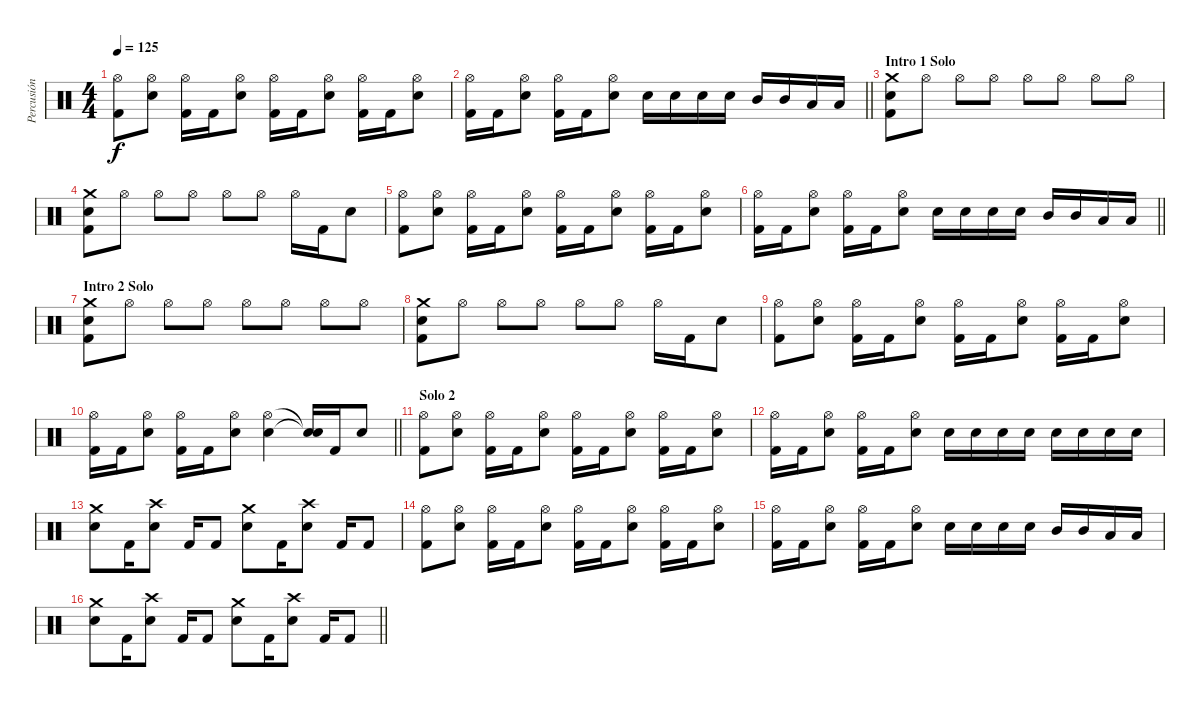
\track ("Percusión" "Percusión") {instrument percussion}
\staff {score}
\articulation defaults
\ts (4 4)
\tempo 125
\clef neutral
\ks c
("Hi-Hat (open)" "Kick (hit) 2").8{dy f} ("Hi-Hat (open)" "Snare (hit) 2").8 ("Hi-Hat (open)" "Kick (hit) 2").16 "Kick (hit) 2".16 ("Hi-Hat (open)" "Snare (hit) 2").8 ("Hi-Hat (open)" "Kick (hit) 2").16 "Kick (hit) 2".16 ("Hi-Hat (open)" "Snare (hit) 2").8 ("Hi-Hat (open)" "Kick (hit) 2").16 "Kick (hit) 2".16 ("Hi-Hat (open)" "Snare (hit) 2").8 |
\barLineRight lightlight
("Hi-Hat (open)" "Kick (hit) 2").16 "Kick (hit) 2".16 ("Hi-Hat (open)" "Snare (hit) 2").8 ("Hi-Hat (open)" "Kick (hit) 2").16 "Kick (hit) 2".16 ("Hi-Hat (open)" "Snare (hit) 2").8 "Snare (hit) 2".16 "Snare (hit) 2".16 "Snare (hit) 2".16 "Snare (hit) 2".16 "Mid Tom (hit)".16 "Mid Tom (hit)".16 "Low Tom (hit)".16 "Low Tom (hit)".16 |
\section ("" "Intro 1 Solo")
("Crash medium (hit)" "Snare (hit) 2" "Kick (hit) 2").8 "Hi-Hat (open)".8 "Hi-Hat (open)".8 "Hi-Hat (open)".8 "Hi-Hat (open)".8 "Hi-Hat (open)".8 "Hi-Hat (open)".8 "Hi-Hat (open)".8 |
("Crash medium (hit)" "Snare (hit) 2" "Kick (hit) 2").8 "Hi-Hat (open)".8 "Hi-Hat (open)".8 "Hi-Hat (open)".8 "Hi-Hat (open)".8 "Hi-Hat (open)".8 "Hi-Hat (open)".16 "Kick (hit) 2".16 "Snare (hit) 2".8 |
("Hi-Hat (open)" "Kick (hit) 2").8 ("Hi-Hat (open)" "Snare (hit) 2").8 ("Hi-Hat (open)" "Kick (hit) 2").16 "Kick (hit) 2".16 ("Hi-Hat (open)" "Snare (hit) 2").8 ("Hi-Hat (open)" "Kick (hit) 2").16 "Kick (hit) 2".16 ("Hi-Hat (open)" "Snare (hit) 2").8 ("Hi-Hat (open)" "Kick (hit) 2").16 "Kick (hit) 2".16 ("Hi-Hat (open)" "Snare (hit) 2").8 |
\barLineRight lightlight
("Hi-Hat (open)" "Kick (hit) 2").16 "Kick (hit) 2".16 ("Hi-Hat (open)" "Snare (hit) 2").8 ("Hi-Hat (open)" "Kick (hit) 2").16 "Kick (hit) 2".16 ("Hi-Hat (open)" "Snare (hit) 2").8 "Snare (hit) 2".16 "Snare (hit) 2".16 "Snare (hit) 2".16 "Snare (hit) 2".16 "Mid Tom (hit)".16 "Mid Tom (hit)".16 "Low Tom (hit)".16 "Low Tom (hit)".16 |
\section ("" "Intro 2 Solo")
("Crash medium (hit)" "Snare (hit) 2" "Kick (hit) 2").8 "Hi-Hat (open)".8 "Hi-Hat (open)".8 "Hi-Hat (open)".8 "Hi-Hat (open)".8 "Hi-Hat (open)".8 "Hi-Hat (open)".8 "Hi-Hat (open)".8 |
("Crash medium (hit)" "Snare (hit) 2" "Kick (hit) 2").8 "Hi-Hat (open)".8 "Hi-Hat (open)".8 "Hi-Hat (open)".8 "Hi-Hat (open)".8 "Hi-Hat (open)".8 "Hi-Hat (open)".16 "Kick (hit) 2".16 "Snare (hit) 2".8 |
("Hi-Hat (open)" "Kick (hit) 2").8 ("Hi-Hat (open)" "Snare (hit) 2").8 ("Hi-Hat (open)" "Kick (hit) 2").16 "Kick (hit) 2".16 ("Hi-Hat (open)" "Snare (hit) 2").8 ("Hi-Hat (open)" "Kick (hit) 2").16 "Kick (hit) 2".16 ("Hi-Hat (open)" "Snare (hit) 2").8 ("Hi-Hat (open)" "Kick (hit) 2").16 "Kick (hit) 2".16 ("Hi-Hat (open)" "Snare (hit) 2").8 |
\barLineRight lightlight
("Hi-Hat (open)" "Kick (hit) 2").16 "Kick (hit) 2".16 ("Hi-Hat (open)" "Snare (hit) 2").8 ("Hi-Hat (open)" "Kick (hit) 2").16 "Kick (hit) 2".16 ("Hi-Hat (open)" "Snare (hit) 2").8 ("Hi-Hat (open)" "Snare (hit) 2").4 ("Snare (hit)"{t} "Snare (hit)"{t}).16 "Kick (hit) 2".16 "Snare (hit) 2".8 |
\section ("" "Solo 2")
("Hi-Hat (open)" "Kick (hit) 2").8 ("Hi-Hat (open)" "Snare (hit) 2").8 ("Hi-Hat (open)" "Kick (hit) 2").16 "Kick (hit) 2".16 ("Hi-Hat (open)" "Snare (hit) 2").8 ("Hi-Hat (open)" "Kick (hit) 2").16 "Kick (hit) 2".16 ("Hi-Hat (open)" "Snare (hit) 2").8 ("Hi-Hat (open)" "Kick (hit) 2").16 "Kick (hit) 2".16 ("Hi-Hat (open)" "Snare (hit) 2").8 |
("Hi-Hat (open)" "Kick (hit) 2").16 "Kick (hit) 2".16 ("Hi-Hat (open)" "Snare (hit) 2").8 ("Hi-Hat (open)" "Kick (hit) 2").16 "Kick (hit) 2".16 ("Hi-Hat (open)" "Snare (hit) 2").8 "Snare (hit) 2".16 "Snare (hit) 2".16 "Snare (hit) 2".16 "Snare (hit) 2".16 "Snare (hit) 2".16 "Snare (hit) 2".16 "Snare (hit) 2".16 "Snare (hit) 2".16 |
("Crash medium (hit)" "Snare (hit) 2").8 "Kick (hit) 2".16 ("Crash high (hit)" "Snare (hit) 2").8 "Kick (hit) 2".16 "Kick (hit) 2".8 ("Crash medium (hit)" "Snare (hit) 2").8 "Kick (hit) 2".16 ("Crash high (hit)" "Snare (hit) 2").8 "Kick (hit) 2".16 "Kick (hit) 2".8 |
("Hi-Hat (open)" "Kick (hit) 2").8 ("Hi-Hat (open)" "Snare (hit) 2").8 ("Hi-Hat (open)" "Kick (hit) 2").16 "Kick (hit) 2".16 ("Hi-Hat (open)" "Snare (hit) 2").8 ("Hi-Hat (open)" "Kick (hit) 2").16 "Kick (hit) 2".16 ("Hi-Hat (open)" "Snare (hit) 2").8 ("Hi-Hat (open)" "Kick (hit) 2").16 "Kick (hit) 2".16 ("Hi-Hat (open)" "Snare (hit) 2").8 |
("Hi-Hat (open)" "Kick (hit) 2").16 "Kick (hit) 2".16 ("Hi-Hat (open)" "Snare (hit) 2").8 ("Hi-Hat (open)" "Kick (hit) 2").16 "Kick (hit) 2".16 ("Hi-Hat (open)" "Snare (hit) 2").8 "Snare (hit) 2".16 "Snare (hit) 2".16 "Snare (hit) 2".16 "Snare (hit) 2".16 "Mid Tom (hit)".16 "Mid Tom (hit)".16 "Low Tom (hit)".16 "Low Tom (hit)".16 |
\barLineRight lightlight
("Crash medium (hit)" "Snare (hit) 2").8 "Kick (hit) 2".16 ("Crash high (hit)" "Snare (hit) 2").8 "Kick (hit) 2".16 "Kick (hit) 2".8 ("Crash medium (hit)" "Snare (hit) 2").8 "Kick (hit) 2".16 ("Crash high (hit)" "Snare (hit) 2").8 "Kick (hit) 2".16 "Kick (hit) 2".8
